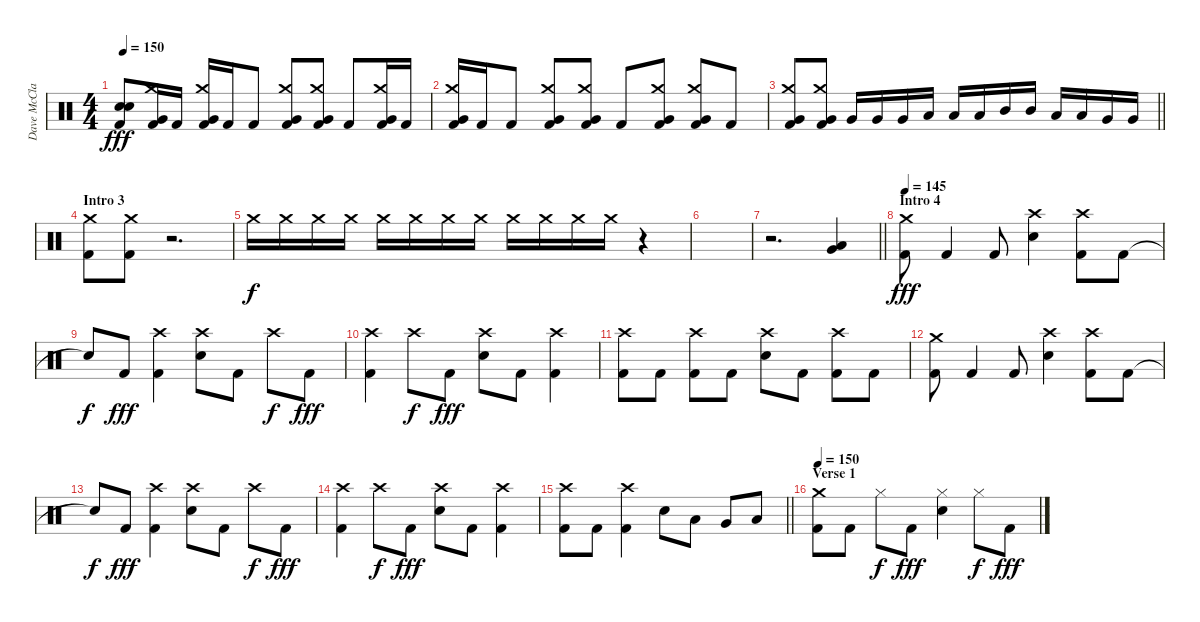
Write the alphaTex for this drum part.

\track ("Dave McClain" "Dave McCla") {instrument percussion}
\staff {score}
\articulation defaults
\ts (4 4)
\tempo 150
\clef neutral
\ks c
("Snare (hit)"{t} "Snare (hit)"{t} "Kick (hit) 2").8{dy fff} ("Crash medium (hit)" "Very Low Tom (hit)" "Kick (hit) 2").16 "Kick (hit) 2".16 ("Crash medium (hit)" "Very Low Tom (hit)" "Kick (hit) 2").16 "Kick (hit) 2".16 "Kick (hit) 2".8 ("Crash medium (hit)" "Very Low Tom (hit)" "Kick (hit) 2").8 ("Crash medium (hit)" "Very Low Tom (hit)" "Kick (hit) 2").8 "Kick (hit) 2".8 ("Crash medium (hit)" "Very Low Tom (hit)" "Kick (hit) 2").16 "Kick (hit) 2".16 |
("Crash medium (hit)" "Very Low Tom (hit)" "Kick (hit) 2").16 "Kick (hit) 2".16 "Kick (hit) 2".8 ("Crash medium (hit)" "Very Low Tom (hit)" "Kick (hit) 2").8 ("Crash medium (hit)" "Very Low Tom (hit)" "Kick (hit) 2").8 "Kick (hit) 2".8 ("Crash medium (hit)" "Very Low Tom (hit)" "Kick (hit) 2").8 ("Crash medium (hit)" "Very Low Tom (hit)" "Kick (hit) 2").8 "Kick (hit) 2".8 |
\barLineRight lightlight
("Crash medium (hit)" "Very Low Tom (hit)" "Kick (hit) 2").8 ("Crash medium (hit)" "Very Low Tom (hit)" "Kick (hit) 2").8 "Very Low Tom (hit)".16 "Very Low Tom (hit)".16 "Very Low Tom (hit)".16 "Low Tom (hit)".16 "Low Tom (hit)".16 "Low Tom (hit)".16 "Mid Tom (hit)".16 "Mid Tom (hit)".16 "Low Floor Tom (hit)".16 "Low Floor Tom (hit)".16 "Very Low Tom (hit)".16 "Very Low Tom (hit)".16 |
\section ("" "Intro 3")
("Crash medium (hit)" "Kick (hit) 2").8 ("Crash medium (hit)" "Kick (hit) 2").8 r.2{d} |
"Crash medium (hit)".16{dy f volume 2} "Crash medium (hit)".16{volume 6} "Crash medium (hit)".16{volume 7} "Crash medium (hit)".16{volume 8} "Crash medium (hit)".16{volume 9} "Crash medium (hit)".16{volume 10} "Crash medium (hit)".16{volume 11} "Crash medium (hit)".16{volume 12} "Crash medium (hit)".16{volume 13} "Crash medium (hit)".16{volume 14} "Crash medium (hit)".16{volume 15} "Crash medium (hit)".16{volume 16} r.4 |
|
\barLineRight lightlight
r.2{d} ("Low Tom (hit)" "Very Low Tom (hit)").4 |
\section ("" "Intro 4")
\tempo 145
("Crash medium (hit)" "Kick (hit) 2").8{dy fff} "Kick (hit) 2".4 "Kick (hit) 2".8 ("Crash high (hit)" "Electric Snare (hit)").4 ("Crash high (hit)" "Kick (hit) 2").8 "Kick (hit) 2".8 |
"Snare (hit)"{t}.8{dy f} "Kick (hit) 2".8{dy fff} ("Crash high (hit)" "Kick (hit) 2").4 ("Crash high (hit)" "Electric Snare (hit)").8 "Kick (hit) 2".8 "Crash high (hit)".8{dy f} "Kick (hit) 2".8{dy fff} |
("Crash high (hit)" "Kick (hit) 2").4 "Crash high (hit)".8{dy f} "Kick (hit) 2".8{dy fff} ("Crash high (hit)" "Electric Snare (hit)").8 "Kick (hit) 2".8 ("Crash high (hit)" "Kick (hit) 2").4 |
("Crash high (hit)" "Kick (hit) 2").8 "Kick (hit) 2".8 ("Crash high (hit)" "Kick (hit) 2").8 "Kick (hit) 2".8 ("Crash high (hit)" "Electric Snare (hit)").8 "Kick (hit) 2".8 ("Crash high (hit)" "Kick (hit) 2").8 "Kick (hit) 2".8 |
("Crash medium (hit)" "Kick (hit) 2").8 "Kick (hit) 2".4 "Kick (hit) 2".8 ("Crash high (hit)" "Electric Snare (hit)").4 ("Crash high (hit)" "Kick (hit) 2").8 "Kick (hit) 2".8 |
"Snare (hit)"{t}.8{dy f} "Kick (hit) 2".8{dy fff} ("Crash high (hit)" "Kick (hit) 2").4 ("Crash high (hit)" "Electric Snare (hit)").8 "Kick (hit) 2".8 "Crash high (hit)".8{dy f} "Kick (hit) 2".8{dy fff} |
("Crash high (hit)" "Kick (hit) 2").4 "Crash high (hit)".8{dy f} "Kick (hit) 2".8{dy fff} ("Crash high (hit)" "Electric Snare (hit)").8 "Kick (hit) 2".8 ("Crash high (hit)" "Kick (hit) 2").4 |
\barLineRight lightlight
("Crash high (hit)" "Kick (hit) 2").8 "Kick (hit) 2".8 ("Crash high (hit)" "Kick (hit) 2").4 "Electric Snare (hit)".8 "Low Tom (hit)".8 "Very Low Tom (hit)".8 "Low Floor Tom (hit)".8 |
\section ("" "Verse 1")
\tempo 150
("Crash medium (hit)" "Kick (hit) 2").8 "Kick (hit) 2".8 "Hi-Hat (closed)".8{dy f} "Kick (hit) 2".8{dy fff} ("Hi-Hat (closed)" "Electric Snare (hit)").4 "Hi-Hat (closed)".8{dy f} "Kick (hit) 2".8{dy fff}
